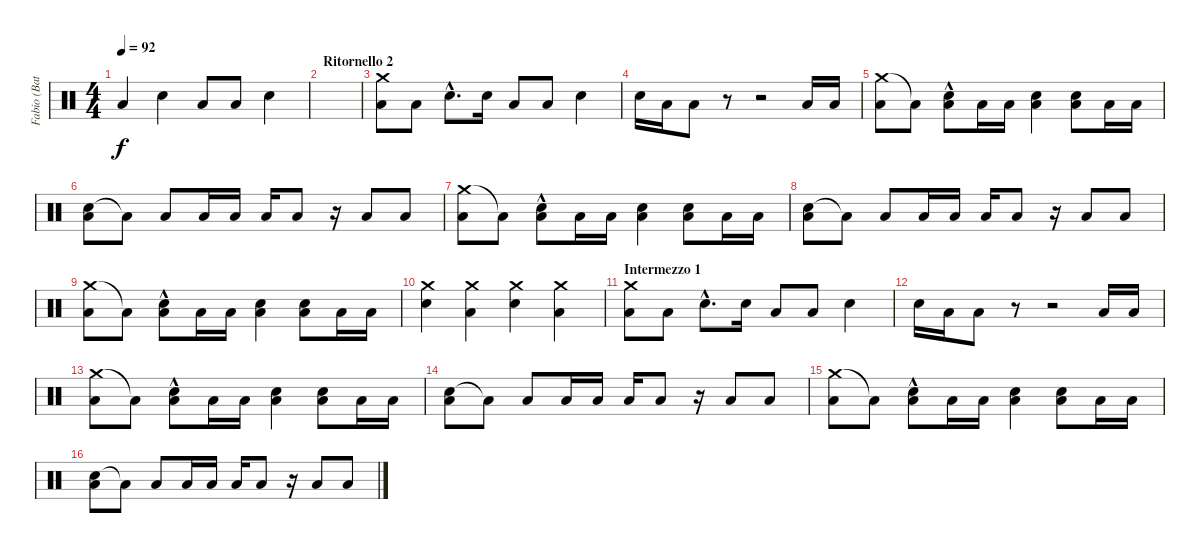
\track ("Fabio (Batteria)" "Fabio (Bat") {instrument percussion}
\staff {score}
\articulation defaults
\ts (4 4)
\tempo 92
\clef neutral
\ks c "Low Tom (hit)".4{dy f} "Snare (hit) 2".4 "Low Tom (hit)".8 "Low Tom (hit)".8 "Snare (hit) 2".4
|
\section ("" "Ritornello 2")
|
("Crash medium (hit)" "Low Tom (hit)").8 "Low Tom (hit)".8 "Snare (hit) 2"{hac}.8{d} "Snare (hit) 2".16 "Low Tom (hit)".8 "Low Tom (hit)".8 "Snare (hit) 2".4 |
"Snare (hit) 2".16 "Low Tom (hit)".16 "Low Tom (hit)".8 r.8 r.2 "Low Tom (hit)".16 "Low Tom (hit)".16 |
("Crash medium (hit)" "Low Tom (hit)").8 "Low Tom (hit)"{t}.8 ("Snare (hit) 2"{hac} "Low Tom (hit)").8 "Low Tom (hit)".16 "Low Tom (hit)".16 ("Snare (hit) 2" "Low Tom (hit)").4 ("Snare (hit) 2" "Low Tom (hit)").8 "Low Tom (hit)".16 "Low Tom (hit)".16 |
("Snare (hit) 2" "Low Tom (hit)").8 "Low Tom (hit)"{t}.8 "Low Tom (hit)".8 "Low Tom (hit)".16 "Low Tom (hit)".16 "Low Tom (hit)".16 "Low Tom (hit)".8 r.16 "Low Tom (hit)".8 "Low Tom (hit)".8 |
("Crash medium (hit)" "Low Tom (hit)").8 "Low Tom (hit)"{t}.8 ("Snare (hit) 2"{hac} "Low Tom (hit)").8 "Low Tom (hit)".16 "Low Tom (hit)".16 ("Snare (hit) 2" "Low Tom (hit)").4 ("Snare (hit) 2" "Low Tom (hit)").8 "Low Tom (hit)".16 "Low Tom (hit)".16 |
("Snare (hit) 2" "Low Tom (hit)").8 "Low Tom (hit)"{t}.8 "Low Tom (hit)".8 "Low Tom (hit)".16 "Low Tom (hit)".16 "Low Tom (hit)".16 "Low Tom (hit)".8 r.16 "Low Tom (hit)".8 "Low Tom (hit)".8 |
("Crash medium (hit)" "Low Tom (hit)").8 "Low Tom (hit)"{t}.8 ("Snare (hit) 2"{hac} "Low Tom (hit)").8 "Low Tom (hit)".16 "Low Tom (hit)".16 ("Snare (hit) 2" "Low Tom (hit)").4 ("Snare (hit) 2" "Low Tom (hit)").8 "Low Tom (hit)".16 "Low Tom (hit)".16 |
("Crash medium (hit)" "Snare (hit) 2").4 ("Crash medium (hit)" "Low Tom (hit)").4 ("Crash medium (hit)" "Snare (hit) 2").4 ("Crash medium (hit)" "Low Tom (hit)").4 |
\section ("" "Intermezzo 1")
("Crash medium (hit)" "Low Tom (hit)").8 "Low Tom (hit)".8 "Snare (hit) 2"{hac}.8{d} "Snare (hit) 2".16 "Low Tom (hit)".8 "Low Tom (hit)".8 "Snare (hit) 2".4 |
"Snare (hit) 2".16 "Low Tom (hit)".16 "Low Tom (hit)".8 r.8 r.2 "Low Tom (hit)".16 "Low Tom (hit)".16 |
("Crash medium (hit)" "Low Tom (hit)").8 "Low Tom (hit)"{t}.8 ("Snare (hit) 2"{hac} "Low Tom (hit)").8 "Low Tom (hit)".16 "Low Tom (hit)".16 ("Snare (hit) 2" "Low Tom (hit)").4 ("Snare (hit) 2" "Low Tom (hit)").8 "Low Tom (hit)".16 "Low Tom (hit)".16 |
("Snare (hit) 2" "Low Tom (hit)").8 "Low Tom (hit)"{t}.8 "Low Tom (hit)".8 "Low Tom (hit)".16 "Low Tom (hit)".16 "Low Tom (hit)".16 "Low Tom (hit)".8 r.16 "Low Tom (hit)".8 "Low Tom (hit)".8 |
("Crash medium (hit)" "Low Tom (hit)").8 "Low Tom (hit)"{t}.8 ("Snare (hit) 2"{hac} "Low Tom (hit)").8 "Low Tom (hit)".16 "Low Tom (hit)".16 ("Snare (hit) 2" "Low Tom (hit)").4 ("Snare (hit) 2" "Low Tom (hit)").8 "Low Tom (hit)".16 "Low Tom (hit)".16 |
("Snare (hit) 2" "Low Tom (hit)").8 "Low Tom (hit)"{t}.8 "Low Tom (hit)".8 "Low Tom (hit)".16 "Low Tom (hit)".16 "Low Tom (hit)".16 "Low Tom (hit)".8 r.16 "Low Tom (hit)".8 "Low Tom (hit)".8
